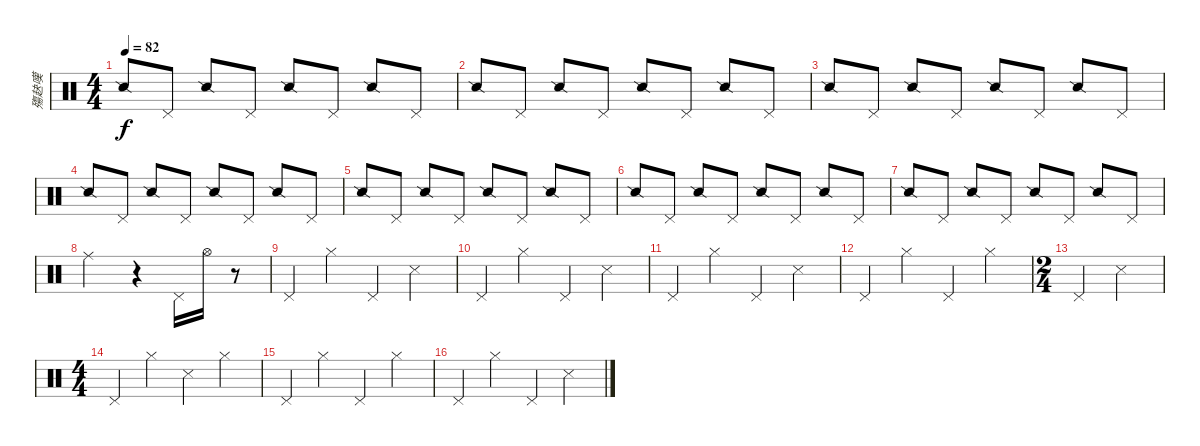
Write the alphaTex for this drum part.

\track ("殤赽嘆" "殤赽嘆") {instrument percussion}
\staff {score}
\articulation defaults
\ts (4 4)
\tempo 82
\clef neutral
\ks c "Snare (side stick) 2".8{dy f} "Pedal Hi-Hat (hit)".8 "Snare (side stick) 2".8 "Pedal Hi-Hat (hit)".8 "Snare (side stick) 2".8 "Pedal Hi-Hat (hit)".8 "Snare (side stick) 2".8 "Pedal Hi-Hat (hit)".8
|
"Snare (side stick) 2".8 "Pedal Hi-Hat (hit)".8 "Snare (side stick) 2".8 "Pedal Hi-Hat (hit)".8 "Snare (side stick) 2".8 "Pedal Hi-Hat (hit)".8 "Snare (side stick) 2".8 "Pedal Hi-Hat (hit)".8 |
"Snare (side stick) 2".8 "Pedal Hi-Hat (hit)".8 "Snare (side stick) 2".8 "Pedal Hi-Hat (hit)".8 "Snare (side stick) 2".8 "Pedal Hi-Hat (hit)".8 "Snare (side stick) 2".8 "Pedal Hi-Hat (hit)".8 |
"Snare (side stick) 2".8 "Pedal Hi-Hat (hit)".8 "Snare (side stick) 2".8 "Pedal Hi-Hat (hit)".8 "Snare (side stick) 2".8 "Pedal Hi-Hat (hit)".8 "Snare (side stick) 2".8 "Pedal Hi-Hat (hit)".8 |
"Snare (side stick) 2".8 "Pedal Hi-Hat (hit)".8 "Snare (side stick) 2".8 "Pedal Hi-Hat (hit)".8 "Snare (side stick) 2".8 "Pedal Hi-Hat (hit)".8 "Snare (side stick) 2".8 "Pedal Hi-Hat (hit)".8 |
"Snare (side stick) 2".8 "Pedal Hi-Hat (hit)".8 "Snare (side stick) 2".8 "Pedal Hi-Hat (hit)".8 "Snare (side stick) 2".8 "Pedal Hi-Hat (hit)".8 "Snare (side stick) 2".8 "Pedal Hi-Hat (hit)".8 |
"Snare (side stick) 2".8 "Pedal Hi-Hat (hit)".8 "Snare (side stick) 2".8 "Pedal Hi-Hat (hit)".8 "Snare (side stick) 2".8 "Pedal Hi-Hat (hit)".8 "Snare (side stick) 2".8 "Pedal Hi-Hat (hit)".8 |
"Ride (middle)".2 r.4 "Pedal Hi-Hat (hit)".16 "Hi-Hat (open)".16 r.8 |
"Pedal Hi-Hat (hit)".4{volume 14} "Hi-Hat (closed)".4 "Pedal Hi-Hat (hit)".4 "Snare (side stick) 3".4 |
"Pedal Hi-Hat (hit)".4 "Hi-Hat (closed)".4 "Pedal Hi-Hat (hit)".4 "Snare (side stick) 3".4 |
"Pedal Hi-Hat (hit)".4 "Hi-Hat (closed)".4 "Pedal Hi-Hat (hit)".4 "Snare (side stick) 3".4 |
"Pedal Hi-Hat (hit)".4 "Hi-Hat (closed)".4 "Pedal Hi-Hat (hit)".4 "Hi-Hat (closed)".4 |
\ts (2 4)
"Pedal Hi-Hat (hit)".4 "Snare (side stick) 3".4 |
\ts (4 4)
"Pedal Hi-Hat (hit)".4 "Hi-Hat (closed)".4 "Snare (side stick) 3".4 "Hi-Hat (closed)".4 |
"Pedal Hi-Hat (hit)".4 "Hi-Hat (closed)".4 "Pedal Hi-Hat (hit)".4 "Hi-Hat (closed)".4 |
"Pedal Hi-Hat (hit)".4 "Hi-Hat (closed)".4 "Pedal Hi-Hat (hit)".4 "Snare (side stick) 3".4
